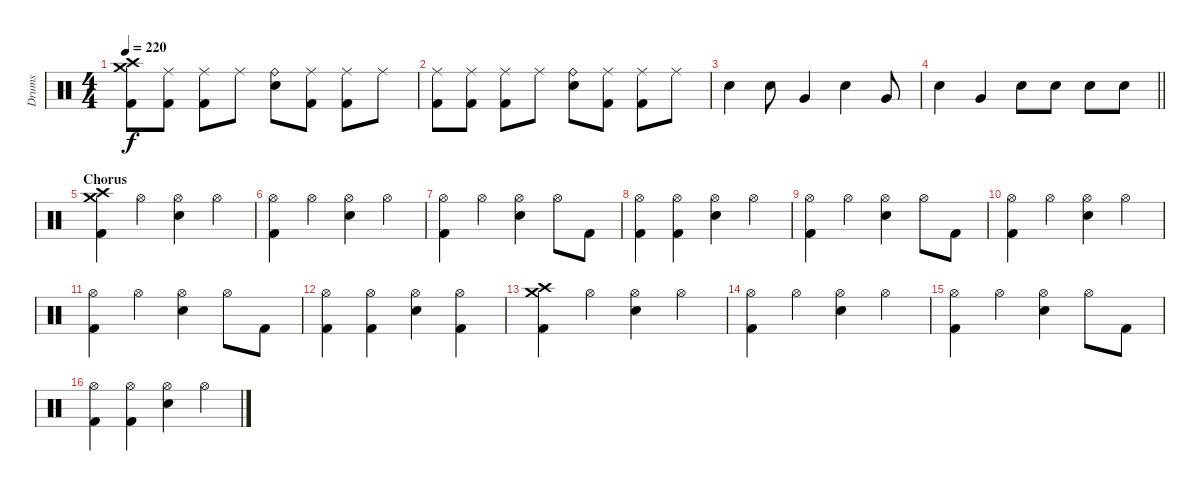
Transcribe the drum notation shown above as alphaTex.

\track ("Drums" "Drums") {instrument percussion}
\staff {score}
\articulation defaults
\ts (4 4)
\tempo 220
\clef neutral
\ks c
("Crash medium (hit)" "Crash high (hit)" "Kick (hit) 2").8{dy f} ("Ride (middle)" "Kick (hit) 2").8 ("Ride (middle)" "Kick (hit) 2").8 "Ride (middle)".8 ("Ride (bell)" "Electric Snare (hit)").8 ("Ride (middle)" "Kick (hit) 2").8 ("Ride (middle)" "Kick (hit) 2").8 "Ride (middle)".8 |
("Ride (middle)" "Kick (hit) 2").8 ("Ride (middle)" "Kick (hit) 2").8 ("Ride (middle)" "Kick (hit) 2").8 "Ride (middle)".8 ("Ride (bell)" "Electric Snare (hit)").8 ("Ride (middle)" "Kick (hit) 2").8 ("Ride (middle)" "Kick (hit) 2").8 "Ride (middle)".8 |
"Electric Snare (hit)".4 "Electric Snare (hit)".8 "Very Low Tom (hit)".4 "Electric Snare (hit)".4 "Very Low Tom (hit)".8 |
\barLineRight lightlight "Electric Snare (hit)".4 "Very Low Tom (hit)".4 "Electric Snare (hit)".8 "Electric Snare (hit)".8 "Electric Snare (hit)".8 "Electric Snare (hit)".8
|
\section ("" "Chorus")
("Crash medium (hit)" "Crash high (hit)" "Kick (hit) 2").4 "Hi-Hat (open)".4 ("Hi-Hat (open)" "Electric Snare (hit)").4 "Hi-Hat (open)".4 |
("Hi-Hat (open)" "Kick (hit) 2").4 "Hi-Hat (open)".4 ("Hi-Hat (open)" "Electric Snare (hit)").4 "Hi-Hat (open)".4 |
("Hi-Hat (open)" "Kick (hit) 2").4 "Hi-Hat (open)".4 ("Hi-Hat (open)" "Electric Snare (hit)").4 "Hi-Hat (open)".8 "Kick (hit) 2".8 |
("Hi-Hat (open)" "Kick (hit) 2").4 ("Hi-Hat (open)" "Kick (hit) 2").4 ("Hi-Hat (open)" "Electric Snare (hit)").4 "Hi-Hat (open)".4 |
("Hi-Hat (open)" "Kick (hit) 2").4 "Hi-Hat (open)".4 ("Hi-Hat (open)" "Electric Snare (hit)").4 "Hi-Hat (open)".8 "Kick (hit) 2".8 |
("Hi-Hat (open)" "Kick (hit) 2").4 "Hi-Hat (open)".4 ("Hi-Hat (open)" "Electric Snare (hit)").4 "Hi-Hat (open)".4 |
("Hi-Hat (open)" "Kick (hit) 2").4 "Hi-Hat (open)".4 ("Hi-Hat (open)" "Electric Snare (hit)").4 "Hi-Hat (open)".8 "Kick (hit) 2".8 |
("Hi-Hat (open)" "Kick (hit) 2").4 ("Hi-Hat (open)" "Kick (hit) 2").4 ("Hi-Hat (open)" "Electric Snare (hit)").4 ("Hi-Hat (open)" "Kick (hit) 2").4 |
("Crash medium (hit)" "Crash high (hit)" "Kick (hit) 2").4 "Hi-Hat (open)".4 ("Hi-Hat (open)" "Electric Snare (hit)").4 "Hi-Hat (open)".4 |
("Hi-Hat (open)" "Kick (hit) 2").4 "Hi-Hat (open)".4 ("Hi-Hat (open)" "Electric Snare (hit)").4 "Hi-Hat (open)".4 |
("Hi-Hat (open)" "Kick (hit) 2").4 "Hi-Hat (open)".4 ("Hi-Hat (open)" "Electric Snare (hit)").4 "Hi-Hat (open)".8 "Kick (hit) 2".8 |
("Hi-Hat (open)" "Kick (hit) 2").4 ("Hi-Hat (open)" "Kick (hit) 2").4 ("Hi-Hat (open)" "Electric Snare (hit)").4 "Hi-Hat (open)".4
